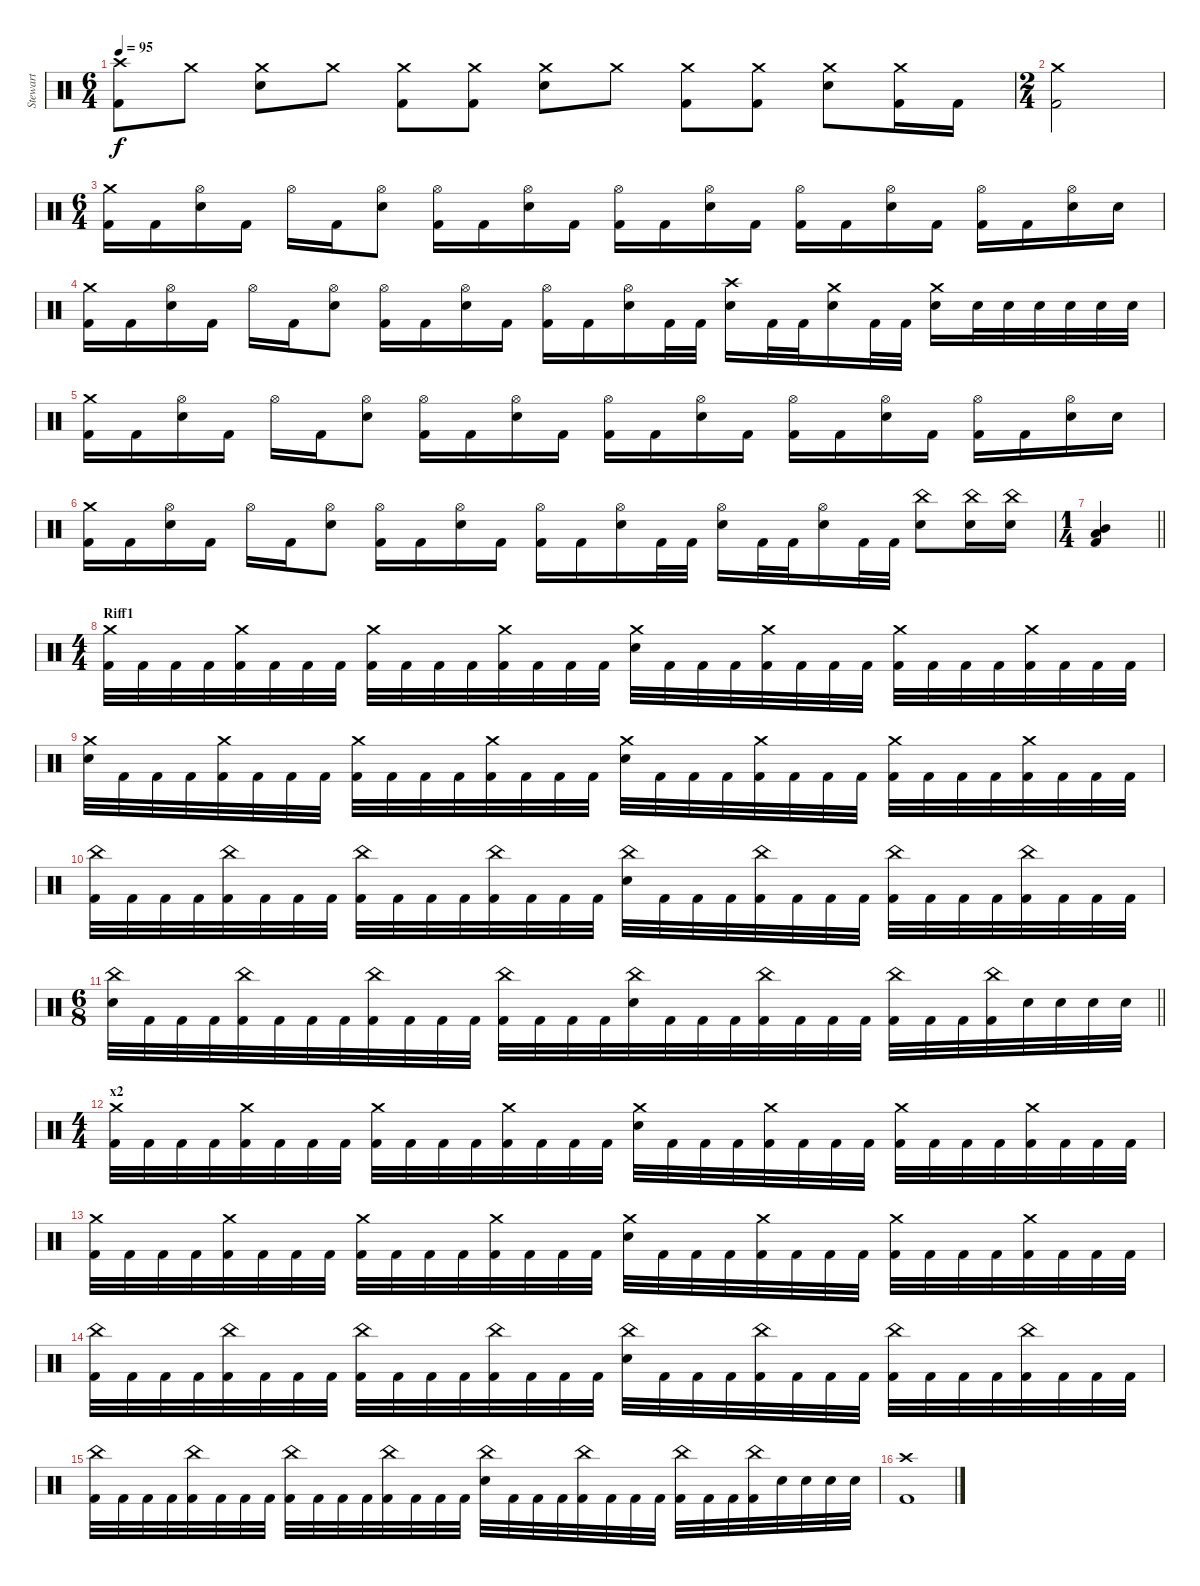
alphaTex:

\track ("Stewart" "Stewart") {instrument percussion}
\staff {score}
\articulation defaults
\ts (6 4)
\tempo 95
\clef neutral
\ks c
("Crash high (hit)" "Kick (hit) 2").8{dy f} "Crash medium (hit)".8 ("Crash medium (hit)" "Electric Snare (hit)").8 "Crash medium (hit)".8 ("Crash medium (hit)" "Kick (hit) 2").8 ("Crash medium (hit)" "Kick (hit) 2").8 ("Crash medium (hit)" "Electric Snare (hit)").8 "Crash medium (hit)".8 ("Crash medium (hit)" "Kick (hit) 2").8 ("Crash medium (hit)" "Kick (hit) 2").8 ("Crash medium (hit)" "Electric Snare (hit)").8 ("Crash medium (hit)" "Kick (hit) 2").16 "Kick (hit) 2".16 |
\ts (2 4)
("Crash medium (hit)" "Kick (hit) 2").2 |
\ts (6 4)
("Crash medium (hit)" "Kick (hit) 2").16 "Kick (hit) 2".16 ("Hi-Hat (open)" "Electric Snare (hit)").16 "Kick (hit) 2".16 "Hi-Hat (open)".16 "Kick (hit) 2".16 ("Hi-Hat (open)" "Electric Snare (hit)").8 ("Hi-Hat (open)" "Kick (hit) 2").16 "Kick (hit) 2".16 ("Hi-Hat (open)" "Electric Snare (hit)").16 "Kick (hit) 2".16 ("Hi-Hat (open)" "Kick (hit) 2").16 "Kick (hit) 2".16 ("Hi-Hat (open)" "Electric Snare (hit)").16 "Kick (hit) 2".16 ("Hi-Hat (open)" "Kick (hit) 2").16 "Kick (hit) 2".16 ("Hi-Hat (open)" "Electric Snare (hit)").16 "Kick (hit) 2".16 ("Hi-Hat (open)" "Kick (hit) 2").16 "Kick (hit) 2".16 ("Hi-Hat (open)" "Electric Snare (hit)").16 "Electric Snare (hit)".16 |
("Crash medium (hit)" "Kick (hit) 2").16 "Kick (hit) 2".16 ("Hi-Hat (open)" "Electric Snare (hit)").16 "Kick (hit) 2".16 "Hi-Hat (open)".16 "Kick (hit) 2".16 ("Hi-Hat (open)" "Electric Snare (hit)").8 ("Hi-Hat (open)" "Kick (hit) 2").16 "Kick (hit) 2".16 ("Hi-Hat (open)" "Electric Snare (hit)").16 "Kick (hit) 2".16 ("Hi-Hat (open)" "Kick (hit) 2").16 "Kick (hit) 2".16 ("Hi-Hat (open)" "Electric Snare (hit)").16 "Kick (hit) 2".32 "Kick (hit) 2".32 ("Crash high (hit)" "Electric Snare (hit)").16 "Kick (hit) 2".32 "Kick (hit) 2".32 ("Crash medium (hit)" "Electric Snare (hit)").16 "Kick (hit) 2".32 "Kick (hit) 2".32 ("Crash medium (hit)" "Electric Snare (hit)").16 "Electric Snare (hit)".32 "Electric Snare (hit)".32 "Electric Snare (hit)".32 "Electric Snare (hit)".32 "Electric Snare (hit)".32 "Electric Snare (hit)".32 |
("Crash medium (hit)" "Kick (hit) 2").16 "Kick (hit) 2".16 ("Hi-Hat (open)" "Electric Snare (hit)").16 "Kick (hit) 2".16 "Hi-Hat (open)".16 "Kick (hit) 2".16 ("Hi-Hat (open)" "Electric Snare (hit)").8 ("Hi-Hat (open)" "Kick (hit) 2").16 "Kick (hit) 2".16 ("Hi-Hat (open)" "Electric Snare (hit)").16 "Kick (hit) 2".16 ("Hi-Hat (open)" "Kick (hit) 2").16 "Kick (hit) 2".16 ("Hi-Hat (open)" "Electric Snare (hit)").16 "Kick (hit) 2".16 ("Hi-Hat (open)" "Kick (hit) 2").16 "Kick (hit) 2".16 ("Hi-Hat (open)" "Electric Snare (hit)").16 "Kick (hit) 2".16 ("Hi-Hat (open)" "Kick (hit) 2").16 "Kick (hit) 2".16 ("Hi-Hat (open)" "Electric Snare (hit)").16 "Electric Snare (hit)".16 |
("Crash medium (hit)" "Kick (hit) 2").16 "Kick (hit) 2".16 ("Hi-Hat (open)" "Electric Snare (hit)").16 "Kick (hit) 2".16 "Hi-Hat (open)".16 "Kick (hit) 2".16 ("Hi-Hat (open)" "Electric Snare (hit)").8 ("Hi-Hat (open)" "Kick (hit) 2").16 "Kick (hit) 2".16 ("Hi-Hat (open)" "Electric Snare (hit)").16 "Kick (hit) 2".16 ("Hi-Hat (open)" "Kick (hit) 2").16 "Kick (hit) 2".16 ("Hi-Hat (open)" "Electric Snare (hit)").16 "Kick (hit) 2".32 "Kick (hit) 2".32 ("Hi-Hat (open)" "Electric Snare (hit)").16 "Kick (hit) 2".32 "Kick (hit) 2".32 ("Hi-Hat (open)" "Electric Snare (hit)").16 "Kick (hit) 2".32 "Kick (hit) 2".32 ("China (hit)" "Electric Snare (hit)").8 ("China (hit)" "Electric Snare (hit)").16 ("China (hit)" "Electric Snare (hit)").16 |
\ts (1 4)
\barLineRight lightlight
("Mid Tom (hit)" "Low Tom (hit)" "Kick (hit) 2").4 |
\ts (4 4)
\section ("" "Riff1")
("Crash medium (hit)" "Kick (hit) 2").32 "Kick (hit) 2".32 "Kick (hit) 2".32 "Kick (hit) 2".32 ("Crash medium (hit)" "Kick (hit) 2").32 "Kick (hit) 2".32 "Kick (hit) 2".32 "Kick (hit) 2".32 ("Crash medium (hit)" "Kick (hit) 2").32 "Kick (hit) 2".32 "Kick (hit) 2".32 "Kick (hit) 2".32 ("Crash medium (hit)" "Kick (hit) 2").32 "Kick (hit) 2".32 "Kick (hit) 2".32 "Kick (hit) 2".32 ("Crash medium (hit)" "Electric Snare (hit)").32 "Kick (hit) 2".32 "Kick (hit) 2".32 "Kick (hit) 2".32 ("Crash medium (hit)" "Kick (hit) 2").32 "Kick (hit) 2".32 "Kick (hit) 2".32 "Kick (hit) 2".32 ("Crash medium (hit)" "Kick (hit) 2").32 "Kick (hit) 2".32 "Kick (hit) 2".32 "Kick (hit) 2".32 ("Crash medium (hit)" "Kick (hit) 2").32 "Kick (hit) 2".32 "Kick (hit) 2".32 "Kick (hit) 2".32 |
("Crash medium (hit)" "Electric Snare (hit)").32 "Kick (hit) 2".32 "Kick (hit) 2".32 "Kick (hit) 2".32 ("Crash medium (hit)" "Kick (hit) 2").32 "Kick (hit) 2".32 "Kick (hit) 2".32 "Kick (hit) 2".32 ("Crash medium (hit)" "Kick (hit) 2").32 "Kick (hit) 2".32 "Kick (hit) 2".32 "Kick (hit) 2".32 ("Crash medium (hit)" "Kick (hit) 2").32 "Kick (hit) 2".32 "Kick (hit) 2".32 "Kick (hit) 2".32 ("Crash medium (hit)" "Electric Snare (hit)").32 "Kick (hit) 2".32 "Kick (hit) 2".32 "Kick (hit) 2".32 ("Crash medium (hit)" "Kick (hit) 2").32 "Kick (hit) 2".32 "Kick (hit) 2".32 "Kick (hit) 2".32 ("Crash medium (hit)" "Kick (hit) 2").32 "Kick (hit) 2".32 "Kick (hit) 2".32 "Kick (hit) 2".32 ("Crash medium (hit)" "Kick (hit) 2").32 "Kick (hit) 2".32 "Kick (hit) 2".32 "Kick (hit) 2".32 |
("China (hit)" "Kick (hit) 2").32 "Kick (hit) 2".32 "Kick (hit) 2".32 "Kick (hit) 2".32 ("China (hit)" "Kick (hit) 2").32 "Kick (hit) 2".32 "Kick (hit) 2".32 "Kick (hit) 2".32 ("China (hit)" "Kick (hit) 2").32 "Kick (hit) 2".32 "Kick (hit) 2".32 "Kick (hit) 2".32 ("China (hit)" "Kick (hit) 2").32 "Kick (hit) 2".32 "Kick (hit) 2".32 "Kick (hit) 2".32 ("China (hit)" "Electric Snare (hit)").32 "Kick (hit) 2".32 "Kick (hit) 2".32 "Kick (hit) 2".32 ("China (hit)" "Kick (hit) 2").32 "Kick (hit) 2".32 "Kick (hit) 2".32 "Kick (hit) 2".32 ("China (hit)" "Kick (hit) 2").32 "Kick (hit) 2".32 "Kick (hit) 2".32 "Kick (hit) 2".32 ("China (hit)" "Kick (hit) 2").32 "Kick (hit) 2".32 "Kick (hit) 2".32 "Kick (hit) 2".32 |
\ts (6 8)
\barLineRight lightlight
("China (hit)" "Electric Snare (hit)").32 "Kick (hit) 2".32 "Kick (hit) 2".32 "Kick (hit) 2".32 ("China (hit)" "Kick (hit) 2").32 "Kick (hit) 2".32 "Kick (hit) 2".32 "Kick (hit) 2".32 ("China (hit)" "Kick (hit) 2").32 "Kick (hit) 2".32 "Kick (hit) 2".32 "Kick (hit) 2".32 ("China (hit)" "Kick (hit) 2").32 "Kick (hit) 2".32 "Kick (hit) 2".32 "Kick (hit) 2".32 ("China (hit)" "Electric Snare (hit)").32 "Kick (hit) 2".32 "Kick (hit) 2".32 "Kick (hit) 2".32 ("China (hit)" "Kick (hit) 2").32 "Kick (hit) 2".32 "Kick (hit) 2".32 "Kick (hit) 2".32 ("China (hit)" "Kick (hit) 2").32 "Kick (hit) 2".32 "Kick (hit) 2".32 ("China (hit)" "Kick (hit) 2").32 "Electric Snare (hit)".32 "Electric Snare (hit)".32 "Electric Snare (hit)".32 "Electric Snare (hit)".32 |
\ts (4 4)
\section ("" "x2")
("Crash medium (hit)" "Kick (hit) 2").32 "Kick (hit) 2".32 "Kick (hit) 2".32 "Kick (hit) 2".32 ("Crash medium (hit)" "Kick (hit) 2").32 "Kick (hit) 2".32 "Kick (hit) 2".32 "Kick (hit) 2".32 ("Crash medium (hit)" "Kick (hit) 2").32 "Kick (hit) 2".32 "Kick (hit) 2".32 "Kick (hit) 2".32 ("Crash medium (hit)" "Kick (hit) 2").32 "Kick (hit) 2".32 "Kick (hit) 2".32 "Kick (hit) 2".32 ("Crash medium (hit)" "Electric Snare (hit)").32 "Kick (hit) 2".32 "Kick (hit) 2".32 "Kick (hit) 2".32 ("Crash medium (hit)" "Kick (hit) 2").32 "Kick (hit) 2".32 "Kick (hit) 2".32 "Kick (hit) 2".32 ("Crash medium (hit)" "Kick (hit) 2").32 "Kick (hit) 2".32 "Kick (hit) 2".32 "Kick (hit) 2".32 ("Crash medium (hit)" "Kick (hit) 2").32 "Kick (hit) 2".32 "Kick (hit) 2".32 "Kick (hit) 2".32 |
("Crash medium (hit)" "Kick (hit) 2").32 "Kick (hit) 2".32 "Kick (hit) 2".32 "Kick (hit) 2".32 ("Crash medium (hit)" "Kick (hit) 2").32 "Kick (hit) 2".32 "Kick (hit) 2".32 "Kick (hit) 2".32 ("Crash medium (hit)" "Kick (hit) 2").32 "Kick (hit) 2".32 "Kick (hit) 2".32 "Kick (hit) 2".32 ("Crash medium (hit)" "Kick (hit) 2").32 "Kick (hit) 2".32 "Kick (hit) 2".32 "Kick (hit) 2".32 ("Crash medium (hit)" "Electric Snare (hit)").32 "Kick (hit) 2".32 "Kick (hit) 2".32 "Kick (hit) 2".32 ("Crash medium (hit)" "Kick (hit) 2").32 "Kick (hit) 2".32 "Kick (hit) 2".32 "Kick (hit) 2".32 ("Crash medium (hit)" "Kick (hit) 2").32 "Kick (hit) 2".32 "Kick (hit) 2".32 "Kick (hit) 2".32 ("Crash medium (hit)" "Kick (hit) 2").32 "Kick (hit) 2".32 "Kick (hit) 2".32 "Kick (hit) 2".32 |
("China (hit)" "Kick (hit) 2").32 "Kick (hit) 2".32 "Kick (hit) 2".32 "Kick (hit) 2".32 ("China (hit)" "Kick (hit) 2").32 "Kick (hit) 2".32 "Kick (hit) 2".32 "Kick (hit) 2".32 ("China (hit)" "Kick (hit) 2").32 "Kick (hit) 2".32 "Kick (hit) 2".32 "Kick (hit) 2".32 ("China (hit)" "Kick (hit) 2").32 "Kick (hit) 2".32 "Kick (hit) 2".32 "Kick (hit) 2".32 ("China (hit)" "Electric Snare (hit)").32 "Kick (hit) 2".32 "Kick (hit) 2".32 "Kick (hit) 2".32 ("China (hit)" "Kick (hit) 2").32 "Kick (hit) 2".32 "Kick (hit) 2".32 "Kick (hit) 2".32 ("China (hit)" "Kick (hit) 2").32 "Kick (hit) 2".32 "Kick (hit) 2".32 "Kick (hit) 2".32 ("China (hit)" "Kick (hit) 2").32 "Kick (hit) 2".32 "Kick (hit) 2".32 "Kick (hit) 2".32 |
("China (hit)" "Kick (hit) 2").32 "Kick (hit) 2".32 "Kick (hit) 2".32 "Kick (hit) 2".32 ("China (hit)" "Kick (hit) 2").32 "Kick (hit) 2".32 "Kick (hit) 2".32 "Kick (hit) 2".32 ("China (hit)" "Kick (hit) 2").32 "Kick (hit) 2".32 "Kick (hit) 2".32 "Kick (hit) 2".32 ("China (hit)" "Kick (hit) 2").32 "Kick (hit) 2".32 "Kick (hit) 2".32 "Kick (hit) 2".32 ("China (hit)" "Electric Snare (hit)").32 "Kick (hit) 2".32 "Kick (hit) 2".32 "Kick (hit) 2".32 ("China (hit)" "Kick (hit) 2").32 "Kick (hit) 2".32 "Kick (hit) 2".32 "Kick (hit) 2".32 ("China (hit)" "Kick (hit) 2").32 "Kick (hit) 2".32 "Kick (hit) 2".32 ("China (hit)" "Kick (hit) 2").32 "Electric Snare (hit)".32 "Electric Snare (hit)".32 "Electric Snare (hit)".32 "Electric Snare (hit)".32 |
("Crash high (hit)" "Kick (hit) 2").1
